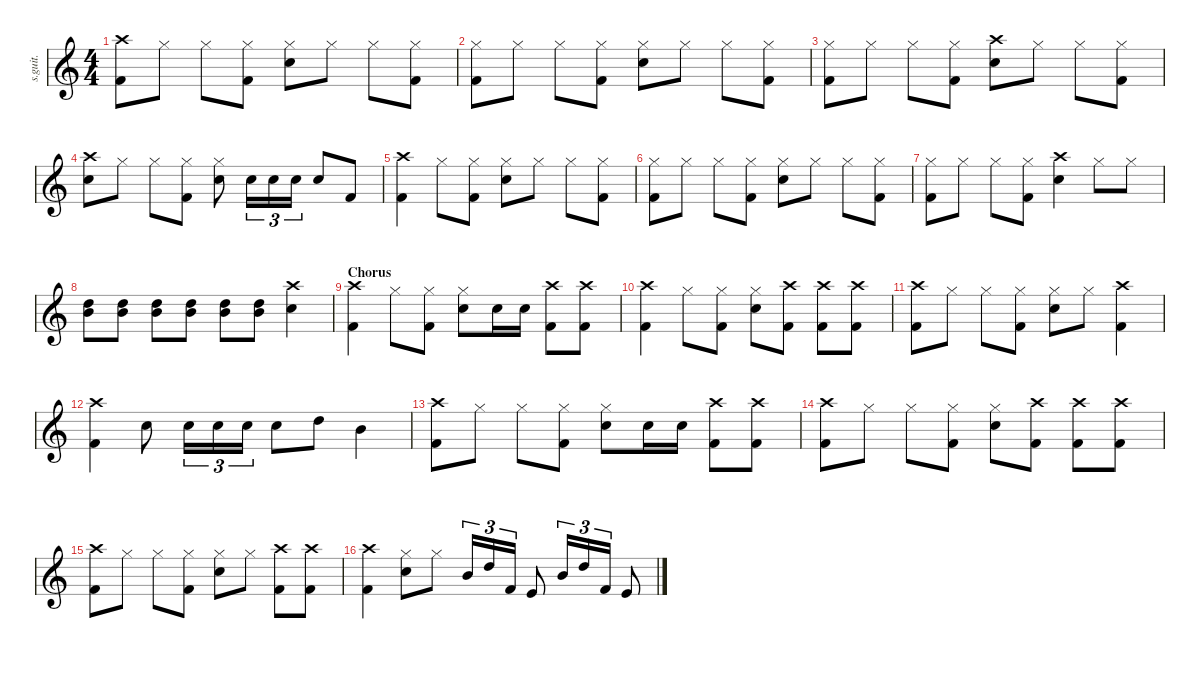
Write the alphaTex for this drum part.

\defaultSystemsLayout 4
\hideDynamics
\bracketExtendMode nobrackets
\track ("Lars Ulrich - Drumzzz" "s.guit.") {instrument percussion}
\staff {score}
\articulation defaults
\ts (4 4)
\tempo (113 hide)
\clef g2
\ks c
("Crash high (hit)" "Kick (hit) 2").8{lyrics (0 "") lyrics (1 "") lyrics (2 "") lyrics (3 "") lyrics (4 "") dy f} "Hi-Hat (closed)".8{lyrics (0 "") lyrics (1 "") lyrics (2 "") lyrics (3 "") lyrics (4 "")} "Hi-Hat (closed)".8{lyrics (0 "") lyrics (1 "") lyrics (2 "") lyrics (3 "") lyrics (4 "")} ("Hi-Hat (closed)" "Kick (hit) 2").8{lyrics (0 "") lyrics (1 "") lyrics (2 "") lyrics (3 "") lyrics (4 "")} ("Hi-Hat (closed)" "Snare (hit) 2").8{lyrics (0 "") lyrics (1 "") lyrics (2 "") lyrics (3 "") lyrics (4 "")} "Hi-Hat (closed)".8{lyrics (0 "") lyrics (1 "") lyrics (2 "") lyrics (3 "") lyrics (4 "")} "Hi-Hat (closed)".8{lyrics (0 "") lyrics (1 "") lyrics (2 "") lyrics (3 "") lyrics (4 "")} ("Hi-Hat (closed)" "Kick (hit) 2").8{lyrics (0 "") lyrics (1 "") lyrics (2 "") lyrics (3 "") lyrics (4 "")} |
("Hi-Hat (closed)" "Kick (hit) 2").8{lyrics (0 "") lyrics (1 "") lyrics (2 "") lyrics (3 "") lyrics (4 "")} "Hi-Hat (closed)".8{lyrics (0 "") lyrics (1 "") lyrics (2 "") lyrics (3 "") lyrics (4 "")} "Hi-Hat (closed)".8{lyrics (0 "") lyrics (1 "") lyrics (2 "") lyrics (3 "") lyrics (4 "")} ("Hi-Hat (closed)" "Kick (hit) 2").8{lyrics (0 "") lyrics (1 "") lyrics (2 "") lyrics (3 "") lyrics (4 "")} ("Hi-Hat (closed)" "Snare (hit) 2").8{lyrics (0 "") lyrics (1 "") lyrics (2 "") lyrics (3 "") lyrics (4 "")} "Hi-Hat (closed)".8{lyrics (0 "") lyrics (1 "") lyrics (2 "") lyrics (3 "") lyrics (4 "")} "Hi-Hat (closed)".8{lyrics (0 "") lyrics (1 "") lyrics (2 "") lyrics (3 "") lyrics (4 "")} ("Hi-Hat (closed)" "Kick (hit) 2").8{lyrics (0 "") lyrics (1 "") lyrics (2 "") lyrics (3 "") lyrics (4 "")} |
("Hi-Hat (closed)" "Kick (hit) 2").8{lyrics (0 "") lyrics (1 "") lyrics (2 "") lyrics (3 "") lyrics (4 "")} "Hi-Hat (closed)".8{lyrics (0 "") lyrics (1 "") lyrics (2 "") lyrics (3 "") lyrics (4 "")} "Hi-Hat (closed)".8{lyrics (0 "") lyrics (1 "") lyrics (2 "") lyrics (3 "") lyrics (4 "")} ("Hi-Hat (closed)" "Kick (hit) 2").8{lyrics (0 "") lyrics (1 "") lyrics (2 "") lyrics (3 "") lyrics (4 "")} ("Crash high (hit)" "Snare (hit) 2").8{lyrics (0 "") lyrics (1 "") lyrics (2 "") lyrics (3 "") lyrics (4 "")} "Hi-Hat (closed)".8{lyrics (0 "") lyrics (1 "") lyrics (2 "") lyrics (3 "") lyrics (4 "")} "Hi-Hat (closed)".8{lyrics (0 "") lyrics (1 "") lyrics (2 "") lyrics (3 "") lyrics (4 "")} ("Hi-Hat (closed)" "Kick (hit) 2").8{lyrics (0 "") lyrics (1 "") lyrics (2 "") lyrics (3 "") lyrics (4 "")} |
("Crash high (hit)" "Snare (hit) 2").8{lyrics (0 "") lyrics (1 "") lyrics (2 "") lyrics (3 "") lyrics (4 "")} "Hi-Hat (closed)".8{lyrics (0 "") lyrics (1 "") lyrics (2 "") lyrics (3 "") lyrics (4 "")} "Hi-Hat (closed)".8{lyrics (0 "") lyrics (1 "") lyrics (2 "") lyrics (3 "") lyrics (4 "")} ("Hi-Hat (closed)" "Kick (hit) 2").8{lyrics (0 "") lyrics (1 "") lyrics (2 "") lyrics (3 "") lyrics (4 "")} ("Hi-Hat (closed)" "Snare (hit) 2").8{lyrics (0 "") lyrics (1 "") lyrics (2 "") lyrics (3 "") lyrics (4 "")} "Snare (hit) 2".16{tu (3 2) lyrics (0 "") lyrics (1 "") lyrics (2 "") lyrics (3 "") lyrics (4 "")} "Snare (hit) 2".16{tu (3 2) lyrics (0 "") lyrics (1 "") lyrics (2 "") lyrics (3 "") lyrics (4 "")} "Snare (hit) 2".16{tu (3 2) lyrics (0 "") lyrics (1 "") lyrics (2 "") lyrics (3 "") lyrics (4 "")} "Snare (hit) 2".8{lyrics (0 "") lyrics (1 "") lyrics (2 "") lyrics (3 "") lyrics (4 "")} "Kick (hit) 2".8{lyrics (0 "") lyrics (1 "") lyrics (2 "") lyrics (3 "") lyrics (4 "")} |
("Crash high (hit)" "Kick (hit) 2").4{lyrics (0 "") lyrics (1 "") lyrics (2 "") lyrics (3 "") lyrics (4 "")} "Hi-Hat (closed)".8{lyrics (0 "") lyrics (1 "") lyrics (2 "") lyrics (3 "") lyrics (4 "")} ("Hi-Hat (closed)" "Kick (hit) 2").8{lyrics (0 "") lyrics (1 "") lyrics (2 "") lyrics (3 "") lyrics (4 "")} ("Hi-Hat (closed)" "Snare (hit) 2").8{lyrics (0 "") lyrics (1 "") lyrics (2 "") lyrics (3 "") lyrics (4 "")} "Hi-Hat (closed)".8{lyrics (0 "") lyrics (1 "") lyrics (2 "") lyrics (3 "") lyrics (4 "")} "Hi-Hat (closed)".8{lyrics (0 "") lyrics (1 "") lyrics (2 "") lyrics (3 "") lyrics (4 "")} ("Hi-Hat (closed)" "Kick (hit) 2").8{lyrics (0 "") lyrics (1 "") lyrics (2 "") lyrics (3 "") lyrics (4 "")} |
("Hi-Hat (closed)" "Kick (hit) 2").8{lyrics (0 "") lyrics (1 "") lyrics (2 "") lyrics (3 "") lyrics (4 "")} "Hi-Hat (closed)".8{lyrics (0 "") lyrics (1 "") lyrics (2 "") lyrics (3 "") lyrics (4 "")} "Hi-Hat (closed)".8{lyrics (0 "") lyrics (1 "") lyrics (2 "") lyrics (3 "") lyrics (4 "")} ("Hi-Hat (closed)" "Kick (hit) 2").8{lyrics (0 "") lyrics (1 "") lyrics (2 "") lyrics (3 "") lyrics (4 "")} ("Hi-Hat (closed)" "Snare (hit) 2").8{lyrics (0 "") lyrics (1 "") lyrics (2 "") lyrics (3 "") lyrics (4 "")} "Hi-Hat (closed)".8{lyrics (0 "") lyrics (1 "") lyrics (2 "") lyrics (3 "") lyrics (4 "")} "Hi-Hat (closed)".8{lyrics (0 "") lyrics (1 "") lyrics (2 "") lyrics (3 "") lyrics (4 "")} ("Hi-Hat (closed)" "Kick (hit) 2").8{lyrics (0 "") lyrics (1 "") lyrics (2 "") lyrics (3 "") lyrics (4 "")} |
("Hi-Hat (closed)" "Kick (hit) 2").8{lyrics (0 "") lyrics (1 "") lyrics (2 "") lyrics (3 "") lyrics (4 "")} "Hi-Hat (closed)".8{lyrics (0 "") lyrics (1 "") lyrics (2 "") lyrics (3 "") lyrics (4 "")} "Hi-Hat (closed)".8{lyrics (0 "") lyrics (1 "") lyrics (2 "") lyrics (3 "") lyrics (4 "")} ("Hi-Hat (closed)" "Kick (hit) 2").8{lyrics (0 "") lyrics (1 "") lyrics (2 "") lyrics (3 "") lyrics (4 "")} ("Crash high (hit)" "Snare (hit) 2").4{lyrics (0 "") lyrics (1 "") lyrics (2 "") lyrics (3 "") lyrics (4 "")} "Hi-Hat (closed)".8{lyrics (0 "") lyrics (1 "") lyrics (2 "") lyrics (3 "") lyrics (4 "")} "Hi-Hat (closed)".8{lyrics (0 "") lyrics (1 "") lyrics (2 "") lyrics (3 "") lyrics (4 "")} |
("Mid Tom (hit)" "High Tom (hit)").8{lyrics (0 "") lyrics (1 "") lyrics (2 "") lyrics (3 "") lyrics (4 "")} ("Mid Tom (hit)" "High Tom (hit)").8{lyrics (0 "") lyrics (1 "") lyrics (2 "") lyrics (3 "") lyrics (4 "")} ("Mid Tom (hit)" "High Tom (hit)").8{lyrics (0 "") lyrics (1 "") lyrics (2 "") lyrics (3 "") lyrics (4 "")} ("Mid Tom (hit)" "High Tom (hit)").8{lyrics (0 "") lyrics (1 "") lyrics (2 "") lyrics (3 "") lyrics (4 "")} ("Mid Tom (hit)" "High Tom (hit)").8{lyrics (0 "") lyrics (1 "") lyrics (2 "") lyrics (3 "") lyrics (4 "")} ("Mid Tom (hit)" "High Tom (hit)").8{lyrics (0 "") lyrics (1 "") lyrics (2 "") lyrics (3 "") lyrics (4 "")} ("Crash high (hit)" "Snare (hit) 2").4{lyrics (0 "") lyrics (1 "") lyrics (2 "") lyrics (3 "") lyrics (4 "")} |
\section ("" "Chorus")
\tempo (119 hide)
("Crash high (hit)" "Kick (hit) 2").4{lyrics (0 "") lyrics (1 "") lyrics (2 "") lyrics (3 "") lyrics (4 "")} "Hi-Hat (closed)".8{lyrics (0 "") lyrics (1 "") lyrics (2 "") lyrics (3 "") lyrics (4 "")} ("Hi-Hat (closed)" "Kick (hit) 2").8{lyrics (0 "") lyrics (1 "") lyrics (2 "") lyrics (3 "") lyrics (4 "")} ("Hi-Hat (closed)" "Snare (hit) 2").8{lyrics (0 "") lyrics (1 "") lyrics (2 "") lyrics (3 "") lyrics (4 "")} "Snare (hit) 2".16{lyrics (0 "") lyrics (1 "") lyrics (2 "") lyrics (3 "") lyrics (4 "")} "Snare (hit) 2".16{lyrics (0 "") lyrics (1 "") lyrics (2 "") lyrics (3 "") lyrics (4 "")} ("Crash high (hit)" "Kick (hit) 2").8{lyrics (0 "") lyrics (1 "") lyrics (2 "") lyrics (3 "") lyrics (4 "")} ("Crash high (hit)" "Kick (hit) 2").8{lyrics (0 "") lyrics (1 "") lyrics (2 "") lyrics (3 "") lyrics (4 "")} |
("Crash high (hit)" "Kick (hit) 2").4{lyrics (0 "") lyrics (1 "") lyrics (2 "") lyrics (3 "") lyrics (4 "")} "Hi-Hat (closed)".8{lyrics (0 "") lyrics (1 "") lyrics (2 "") lyrics (3 "") lyrics (4 "")} ("Hi-Hat (closed)" "Kick (hit) 2").8{lyrics (0 "") lyrics (1 "") lyrics (2 "") lyrics (3 "") lyrics (4 "")} ("Hi-Hat (closed)" "Snare (hit) 2").8{lyrics (0 "") lyrics (1 "") lyrics (2 "") lyrics (3 "") lyrics (4 "")} ("Crash high (hit)" "Kick (hit) 2").8{lyrics (0 "") lyrics (1 "") lyrics (2 "") lyrics (3 "") lyrics (4 "")} ("Crash high (hit)" "Kick (hit) 2").8{lyrics (0 "") lyrics (1 "") lyrics (2 "") lyrics (3 "") lyrics (4 "")} ("Crash high (hit)" "Kick (hit) 2").8{lyrics (0 "") lyrics (1 "") lyrics (2 "") lyrics (3 "") lyrics (4 "")} |
("Crash high (hit)" "Kick (hit) 2").8{lyrics (0 "") lyrics (1 "") lyrics (2 "") lyrics (3 "") lyrics (4 "")} "Hi-Hat (closed)".8{lyrics (0 "") lyrics (1 "") lyrics (2 "") lyrics (3 "") lyrics (4 "")} "Hi-Hat (closed)".8{lyrics (0 "") lyrics (1 "") lyrics (2 "") lyrics (3 "") lyrics (4 "")} ("Hi-Hat (closed)" "Kick (hit) 2").8{lyrics (0 "") lyrics (1 "") lyrics (2 "") lyrics (3 "") lyrics (4 "")} ("Hi-Hat (closed)" "Snare (hit) 2").8{lyrics (0 "") lyrics (1 "") lyrics (2 "") lyrics (3 "") lyrics (4 "")} "Hi-Hat (closed)".8{lyrics (0 "") lyrics (1 "") lyrics (2 "") lyrics (3 "") lyrics (4 "")} ("Crash high (hit)" "Kick (hit) 2").4{lyrics (0 "") lyrics (1 "") lyrics (2 "") lyrics (3 "") lyrics (4 "")} |
("Crash high (hit)" "Kick (hit) 2").4{lyrics (0 "") lyrics (1 "") lyrics (2 "") lyrics (3 "") lyrics (4 "")} "Snare (hit) 2".8{lyrics (0 "") lyrics (1 "") lyrics (2 "") lyrics (3 "") lyrics (4 "")} "Snare (hit) 2".16{tu (3 2) lyrics (0 "") lyrics (1 "") lyrics (2 "") lyrics (3 "") lyrics (4 "")} "Snare (hit) 2".16{tu (3 2) lyrics (0 "") lyrics (1 "") lyrics (2 "") lyrics (3 "") lyrics (4 "")} "Snare (hit) 2".16{tu (3 2) lyrics (0 "") lyrics (1 "") lyrics (2 "") lyrics (3 "") lyrics (4 "")} "Snare (hit) 2".8{lyrics (0 "") lyrics (1 "") lyrics (2 "") lyrics (3 "") lyrics (4 "")} "High Tom (hit)".8{lyrics (0 "") lyrics (1 "") lyrics (2 "") lyrics (3 "") lyrics (4 "")} "Mid Tom (hit)".4{lyrics (0 "") lyrics (1 "") lyrics (2 "") lyrics (3 "") lyrics (4 "")} |
("Crash high (hit)" "Kick (hit) 2").8{lyrics (0 "") lyrics (1 "") lyrics (2 "") lyrics (3 "") lyrics (4 "")} "Hi-Hat (closed)".8{lyrics (0 "") lyrics (1 "") lyrics (2 "") lyrics (3 "") lyrics (4 "")} "Hi-Hat (closed)".8{lyrics (0 "") lyrics (1 "") lyrics (2 "") lyrics (3 "") lyrics (4 "")} ("Hi-Hat (closed)" "Kick (hit) 2").8{lyrics (0 "") lyrics (1 "") lyrics (2 "") lyrics (3 "") lyrics (4 "")} ("Hi-Hat (closed)" "Snare (hit) 2").8{lyrics (0 "") lyrics (1 "") lyrics (2 "") lyrics (3 "") lyrics (4 "")} "Snare (hit) 2".16{lyrics (0 "") lyrics (1 "") lyrics (2 "") lyrics (3 "") lyrics (4 "")} "Snare (hit) 2".16{lyrics (0 "") lyrics (1 "") lyrics (2 "") lyrics (3 "") lyrics (4 "")} ("Crash high (hit)" "Kick (hit) 2").8{lyrics (0 "") lyrics (1 "") lyrics (2 "") lyrics (3 "") lyrics (4 "")} ("Crash high (hit)" "Kick (hit) 2").8{lyrics (0 "") lyrics (1 "") lyrics (2 "") lyrics (3 "") lyrics (4 "")} |
("Crash high (hit)" "Kick (hit) 2").8{lyrics (0 "") lyrics (1 "") lyrics (2 "") lyrics (3 "") lyrics (4 "")} "Hi-Hat (closed)".8{lyrics (0 "") lyrics (1 "") lyrics (2 "") lyrics (3 "") lyrics (4 "")} "Hi-Hat (closed)".8{lyrics (0 "") lyrics (1 "") lyrics (2 "") lyrics (3 "") lyrics (4 "")} ("Hi-Hat (closed)" "Kick (hit) 2").8{lyrics (0 "") lyrics (1 "") lyrics (2 "") lyrics (3 "") lyrics (4 "")} ("Hi-Hat (closed)" "Snare (hit) 2").8{lyrics (0 "") lyrics (1 "") lyrics (2 "") lyrics (3 "") lyrics (4 "")} ("Crash high (hit)" "Kick (hit) 2").8{lyrics (0 "") lyrics (1 "") lyrics (2 "") lyrics (3 "") lyrics (4 "")} ("Crash high (hit)" "Kick (hit) 2").8{lyrics (0 "") lyrics (1 "") lyrics (2 "") lyrics (3 "") lyrics (4 "")} ("Crash high (hit)" "Kick (hit) 2").8{lyrics (0 "") lyrics (1 "") lyrics (2 "") lyrics (3 "") lyrics (4 "")} |
("Crash high (hit)" "Kick (hit) 2").8{lyrics (0 "") lyrics (1 "") lyrics (2 "") lyrics (3 "") lyrics (4 "")} "Hi-Hat (closed)".8{lyrics (0 "") lyrics (1 "") lyrics (2 "") lyrics (3 "") lyrics (4 "")} "Hi-Hat (closed)".8{lyrics (0 "") lyrics (1 "") lyrics (2 "") lyrics (3 "") lyrics (4 "")} ("Hi-Hat (closed)" "Kick (hit) 2").8{lyrics (0 "") lyrics (1 "") lyrics (2 "") lyrics (3 "") lyrics (4 "")} ("Hi-Hat (closed)" "Snare (hit) 2").8{lyrics (0 "") lyrics (1 "") lyrics (2 "") lyrics (3 "") lyrics (4 "")} "Hi-Hat (closed)".8{lyrics (0 "") lyrics (1 "") lyrics (2 "") lyrics (3 "") lyrics (4 "")} ("Crash high (hit)" "Kick (hit) 2").8{lyrics (0 "") lyrics (1 "") lyrics (2 "") lyrics (3 "") lyrics (4 "")} ("Crash high (hit)" "Kick (hit) 2").8{lyrics (0 "") lyrics (1 "") lyrics (2 "") lyrics (3 "") lyrics (4 "")} |
("Crash high (hit)" "Kick (hit) 2").4{lyrics (0 "") lyrics (1 "") lyrics (2 "") lyrics (3 "") lyrics (4 "")} ("Hi-Hat (closed)" "Snare (hit) 2").8{lyrics (0 "") lyrics (1 "") lyrics (2 "") lyrics (3 "") lyrics (4 "")} "Hi-Hat (closed)".8{lyrics (0 "") lyrics (1 "") lyrics (2 "") lyrics (3 "") lyrics (4 "")} "Mid Tom (hit)".16{tu (3 2) lyrics (0 "") lyrics (1 "") lyrics (2 "") lyrics (3 "") lyrics (4 "")} "High Tom (hit)".16{tu (3 2) lyrics (0 "") lyrics (1 "") lyrics (2 "") lyrics (3 "") lyrics (4 "")} "Kick (hit) 2".16{tu (3 2) lyrics (0 "") lyrics (1 "") lyrics (2 "") lyrics (3 "") lyrics (4 "")} "Kick (hit)".8{lyrics (0 "") lyrics (1 "") lyrics (2 "") lyrics (3 "") lyrics (4 "")} "Mid Tom (hit)".16{tu (3 2) lyrics (0 "") lyrics (1 "") lyrics (2 "") lyrics (3 "") lyrics (4 "")} "High Tom (hit)".16{tu (3 2) lyrics (0 "") lyrics (1 "") lyrics (2 "") lyrics (3 "") lyrics (4 "")} "Kick (hit) 2".16{tu (3 2) lyrics (0 "") lyrics (1 "") lyrics (2 "") lyrics (3 "") lyrics (4 "")} "Kick (hit)".8{lyrics (0 "") lyrics (1 "") lyrics (2 "") lyrics (3 "") lyrics (4 "")}
